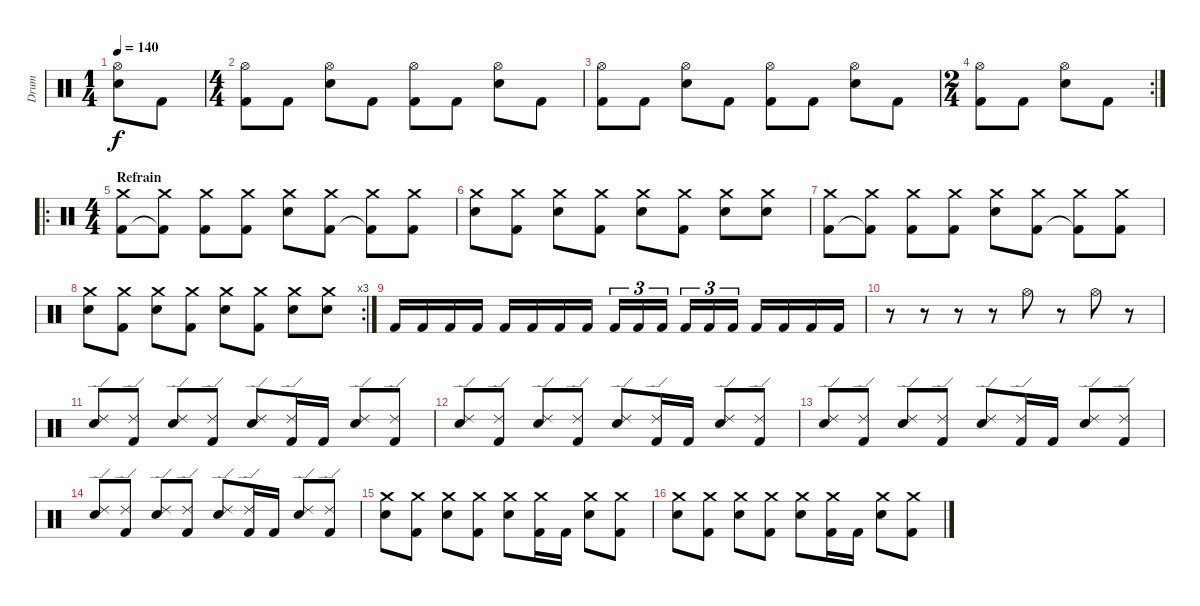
\track ("Drum" "Drum") {instrument percussion}
\staff {score}
\articulation defaults
\ts (1 4)
\tempo 140
\clef neutral
\ks c
("Hi-Hat (open)" "Electric Snare (hit)").8{dy f} "Kick (hit) 2".8 |
\ts (4 4)
("Hi-Hat (open)" "Kick (hit) 2").8 "Kick (hit) 2".8 ("Hi-Hat (open)" "Electric Snare (hit)").8 "Kick (hit) 2".8 ("Hi-Hat (open)" "Kick (hit) 2").8 "Kick (hit) 2".8 ("Hi-Hat (open)" "Electric Snare (hit)").8 "Kick (hit) 2".8 |
("Hi-Hat (open)" "Kick (hit) 2").8 "Kick (hit) 2".8 ("Hi-Hat (open)" "Electric Snare (hit)").8 "Kick (hit) 2".8 ("Hi-Hat (open)" "Kick (hit) 2").8 "Kick (hit) 2".8 ("Hi-Hat (open)" "Electric Snare (hit)").8 "Kick (hit) 2".8 |
\rc 2
\ts (2 4)
("Hi-Hat (open)" "Kick (hit) 2").8 "Kick (hit) 2".8 ("Hi-Hat (open)" "Electric Snare (hit)").8 "Kick (hit) 2".8 |
\ro
\ts (4 4)
\section ("" "Refrain")
("Crash medium (hit)" "Kick (hit) 2").8 ("Crash medium (hit)" "Kick (hit) 2"{t}).8 ("Crash medium (hit)" "Kick (hit) 2").8 ("Crash medium (hit)" "Kick (hit) 2").8 ("Crash medium (hit)" "Electric Snare (hit)").8 ("Crash medium (hit)" "Kick (hit) 2").8 ("Crash medium (hit)" "Kick (hit) 2"{t}).8 ("Crash medium (hit)" "Kick (hit) 2").8 |
("Crash medium (hit)" "Electric Snare (hit)").8 ("Crash medium (hit)" "Kick (hit) 2").8 ("Crash medium (hit)" "Electric Snare (hit)").8 ("Crash medium (hit)" "Kick (hit) 2").8 ("Crash medium (hit)" "Electric Snare (hit)").8 ("Crash medium (hit)" "Kick (hit) 2").8 ("Crash medium (hit)" "Electric Snare (hit)").8 ("Crash medium (hit)" "Electric Snare (hit)").8 |
("Crash medium (hit)" "Kick (hit) 2").8 ("Crash medium (hit)" "Kick (hit) 2"{t}).8 ("Crash medium (hit)" "Kick (hit) 2").8 ("Crash medium (hit)" "Kick (hit) 2").8 ("Crash medium (hit)" "Electric Snare (hit)").8 ("Crash medium (hit)" "Kick (hit) 2").8 ("Crash medium (hit)" "Kick (hit) 2"{t}).8 ("Crash medium (hit)" "Kick (hit) 2").8 |
\rc 3
("Crash medium (hit)" "Electric Snare (hit)").8 ("Crash medium (hit)" "Kick (hit) 2").8 ("Crash medium (hit)" "Electric Snare (hit)").8 ("Crash medium (hit)" "Kick (hit) 2").8 ("Crash medium (hit)" "Electric Snare (hit)").8 ("Crash medium (hit)" "Kick (hit) 2").8 ("Crash medium (hit)" "Electric Snare (hit)").8 ("Crash medium (hit)" "Electric Snare (hit)").8 |
\section ("" "")
"Kick (hit) 2".16 "Kick (hit) 2".16 "Kick (hit) 2".16 "Kick (hit) 2".16 "Kick (hit) 2".16 "Kick (hit) 2".16 "Kick (hit) 2".16 "Kick (hit) 2".16 "Kick (hit) 2".16{tu (3 2)} "Kick (hit) 2".16{tu (3 2)} "Kick (hit) 2".16{tu (3 2)} "Kick (hit) 2".16{tu (3 2)} "Kick (hit) 2".16{tu (3 2)} "Kick (hit) 2".16{tu (3 2)} "Kick (hit) 2".16 "Kick (hit) 2".16 "Kick (hit) 2".16 "Kick (hit) 2".16 |
r.8 r.8 r.8 r.8 "Hi-Hat (open)".8 r.8 "Hi-Hat (open)".8 r.8 |
("Ride (edge) 2" "Electric Snare (hit)").8 ("Ride (edge) 2" "Kick (hit) 2").8 ("Ride (edge) 2" "Electric Snare (hit)").8 ("Ride (edge) 2" "Kick (hit) 2").8 ("Ride (edge) 2" "Electric Snare (hit)").8 ("Ride (edge) 2" "Kick (hit) 2").16 "Kick (hit) 2".16 ("Ride (edge) 2" "Electric Snare (hit)").8 ("Ride (edge) 2" "Kick (hit) 2").8 |
("Ride (edge) 2" "Electric Snare (hit)").8 ("Ride (edge) 2" "Kick (hit) 2").8 ("Ride (edge) 2" "Electric Snare (hit)").8 ("Ride (edge) 2" "Kick (hit) 2").8 ("Ride (edge) 2" "Electric Snare (hit)").8 ("Ride (edge) 2" "Kick (hit) 2").16 "Kick (hit) 2".16 ("Ride (edge) 2" "Electric Snare (hit)").8 ("Ride (edge) 2" "Kick (hit) 2").8 |
("Ride (edge) 2" "Electric Snare (hit)").8 ("Ride (edge) 2" "Kick (hit) 2").8 ("Ride (edge) 2" "Electric Snare (hit)").8 ("Ride (edge) 2" "Kick (hit) 2").8 ("Ride (edge) 2" "Electric Snare (hit)").8 ("Ride (edge) 2" "Kick (hit) 2").16 "Kick (hit) 2".16 ("Ride (edge) 2" "Electric Snare (hit)").8 ("Ride (edge) 2" "Kick (hit) 2").8 |
("Ride (edge) 2" "Electric Snare (hit)").8 ("Ride (edge) 2" "Kick (hit) 2").8 ("Ride (edge) 2" "Electric Snare (hit)").8 ("Ride (edge) 2" "Kick (hit) 2").8 ("Ride (edge) 2" "Electric Snare (hit)").8 ("Ride (edge) 2" "Kick (hit) 2").16 "Kick (hit) 2".16 ("Ride (edge) 2" "Electric Snare (hit)").8 ("Ride (edge) 2" "Kick (hit) 2").8 |
("Crash medium (hit)" "Electric Snare (hit)").8 ("Crash medium (hit)" "Kick (hit) 2").8 ("Crash medium (hit)" "Electric Snare (hit)").8 ("Crash medium (hit)" "Kick (hit) 2").8 ("Crash medium (hit)" "Electric Snare (hit)").8 ("Crash medium (hit)" "Kick (hit) 2").16 "Kick (hit) 2".16 ("Crash medium (hit)" "Electric Snare (hit)").8 ("Crash medium (hit)" "Kick (hit) 2").8 |
("Crash medium (hit)" "Electric Snare (hit)").8 ("Crash medium (hit)" "Kick (hit) 2").8 ("Crash medium (hit)" "Electric Snare (hit)").8 ("Crash medium (hit)" "Kick (hit) 2").8 ("Crash medium (hit)" "Electric Snare (hit)").8 ("Crash medium (hit)" "Kick (hit) 2").16 "Kick (hit) 2".16 ("Crash medium (hit)" "Electric Snare (hit)").8 ("Crash medium (hit)" "Kick (hit) 2").8
